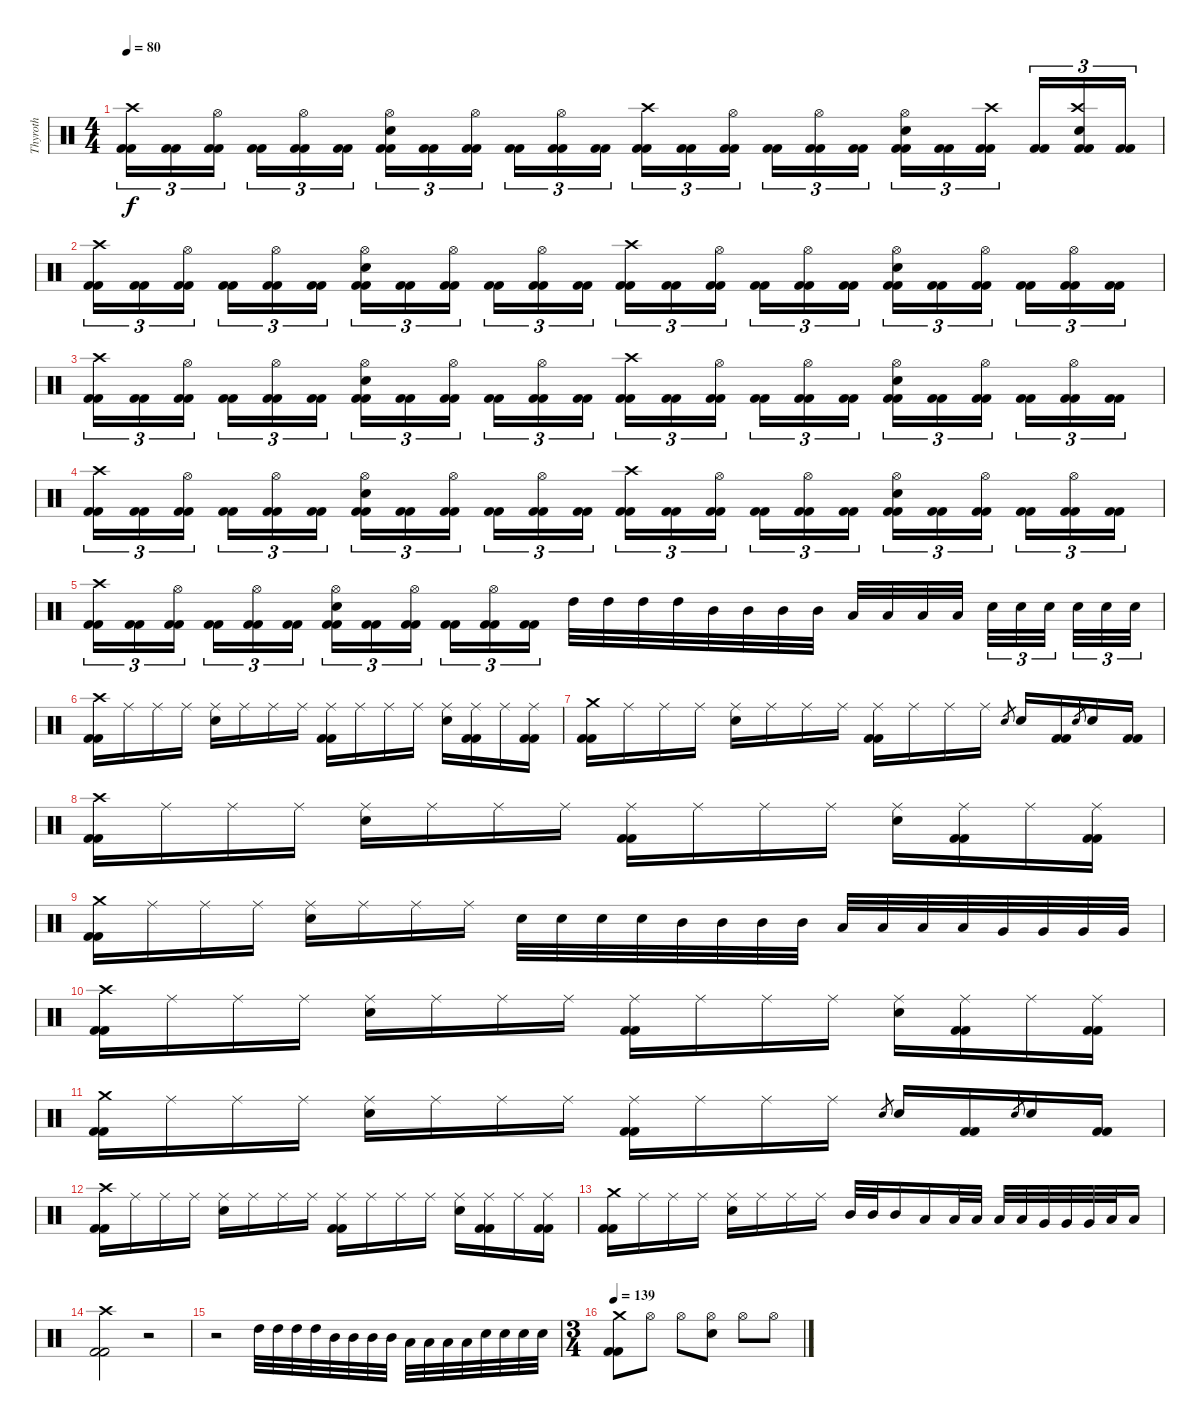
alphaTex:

\track ("Thyroth" "Thyroth") {instrument percussion}
\staff {score}
\articulation defaults
\ts (4 4)
\tempo 80
\clef neutral
\ks c
("Kick (hit) 2" "Kick (hit) 2" "Crash high (hit)").16{tu (3 2) dy f} ("Kick (hit) 2" "Kick (hit) 2").16{tu (3 2)} ("Kick (hit) 2" "Kick (hit) 2" "Hi-Hat (open)").16{tu (3 2)} ("Kick (hit) 2" "Kick (hit) 2").16{tu (3 2)} ("Kick (hit) 2" "Kick (hit) 2" "Hi-Hat (open)").16{tu (3 2)} ("Kick (hit) 2" "Kick (hit) 2").16{tu (3 2)} ("Kick (hit) 2" "Kick (hit) 2" "Snare (hit) 2" "Hi-Hat (open)").16{tu (3 2)} ("Kick (hit) 2" "Kick (hit) 2").16{tu (3 2)} ("Kick (hit) 2" "Kick (hit) 2" "Hi-Hat (open)").16{tu (3 2)} ("Kick (hit) 2" "Kick (hit) 2").16{tu (3 2)} ("Kick (hit) 2" "Kick (hit) 2" "Hi-Hat (open)").16{tu (3 2)} ("Kick (hit) 2" "Kick (hit) 2").16{tu (3 2)} ("Kick (hit) 2" "Kick (hit) 2" "Crash high (hit)").16{tu (3 2)} ("Kick (hit) 2" "Kick (hit) 2").16{tu (3 2)} ("Kick (hit) 2" "Kick (hit) 2" "Hi-Hat (open)").16{tu (3 2)} ("Kick (hit) 2" "Kick (hit) 2").16{tu (3 2)} ("Kick (hit) 2" "Kick (hit) 2" "Hi-Hat (open)").16{tu (3 2)} ("Kick (hit) 2" "Kick (hit) 2").16{tu (3 2)} ("Kick (hit) 2" "Kick (hit) 2" "Snare (hit) 2" "Hi-Hat (open)").16{tu (3 2)} ("Kick (hit) 2" "Kick (hit) 2").16{tu (3 2)} ("Kick (hit) 2" "Kick (hit) 2" "Crash high (hit)").16{tu (3 2)} ("Kick (hit) 2" "Kick (hit) 2").16{tu (3 2)} ("Kick (hit) 2" "Kick (hit) 2" "Snare (hit) 2" "Crash high (hit)").16{tu (3 2)} ("Kick (hit) 2" "Kick (hit) 2").16{tu (3 2)} |
("Kick (hit) 2" "Kick (hit) 2" "Crash high (hit)").16{tu (3 2)} ("Kick (hit) 2" "Kick (hit) 2").16{tu (3 2)} ("Kick (hit) 2" "Kick (hit) 2" "Hi-Hat (open)").16{tu (3 2)} ("Kick (hit) 2" "Kick (hit) 2").16{tu (3 2)} ("Kick (hit) 2" "Kick (hit) 2" "Hi-Hat (open)").16{tu (3 2)} ("Kick (hit) 2" "Kick (hit) 2").16{tu (3 2)} ("Kick (hit) 2" "Kick (hit) 2" "Snare (hit) 2" "Hi-Hat (open)").16{tu (3 2)} ("Kick (hit) 2" "Kick (hit) 2").16{tu (3 2)} ("Kick (hit) 2" "Kick (hit) 2" "Hi-Hat (open)").16{tu (3 2)} ("Kick (hit) 2" "Kick (hit) 2").16{tu (3 2)} ("Kick (hit) 2" "Kick (hit) 2" "Hi-Hat (open)").16{tu (3 2)} ("Kick (hit) 2" "Kick (hit) 2").16{tu (3 2)} ("Kick (hit) 2" "Kick (hit) 2" "Crash high (hit)").16{tu (3 2)} ("Kick (hit) 2" "Kick (hit) 2").16{tu (3 2)} ("Kick (hit) 2" "Kick (hit) 2" "Hi-Hat (open)").16{tu (3 2)} ("Kick (hit) 2" "Kick (hit) 2").16{tu (3 2)} ("Kick (hit) 2" "Kick (hit) 2" "Hi-Hat (open)").16{tu (3 2)} ("Kick (hit) 2" "Kick (hit) 2").16{tu (3 2)} ("Kick (hit) 2" "Kick (hit) 2" "Snare (hit) 2" "Hi-Hat (open)").16{tu (3 2)} ("Kick (hit) 2" "Kick (hit) 2").16{tu (3 2)} ("Kick (hit) 2" "Kick (hit) 2" "Hi-Hat (open)").16{tu (3 2)} ("Kick (hit) 2" "Kick (hit) 2").16{tu (3 2)} ("Kick (hit) 2" "Kick (hit) 2" "Hi-Hat (open)").16{tu (3 2)} ("Kick (hit) 2" "Kick (hit) 2").16{tu (3 2)} |
("Kick (hit) 2" "Kick (hit) 2" "Crash high (hit)").16{tu (3 2)} ("Kick (hit) 2" "Kick (hit) 2").16{tu (3 2)} ("Kick (hit) 2" "Kick (hit) 2" "Hi-Hat (open)").16{tu (3 2)} ("Kick (hit) 2" "Kick (hit) 2").16{tu (3 2)} ("Kick (hit) 2" "Kick (hit) 2" "Hi-Hat (open)").16{tu (3 2)} ("Kick (hit) 2" "Kick (hit) 2").16{tu (3 2)} ("Kick (hit) 2" "Kick (hit) 2" "Snare (hit) 2" "Hi-Hat (open)").16{tu (3 2)} ("Kick (hit) 2" "Kick (hit) 2").16{tu (3 2)} ("Kick (hit) 2" "Kick (hit) 2" "Hi-Hat (open)").16{tu (3 2)} ("Kick (hit) 2" "Kick (hit) 2").16{tu (3 2)} ("Kick (hit) 2" "Kick (hit) 2" "Hi-Hat (open)").16{tu (3 2)} ("Kick (hit) 2" "Kick (hit) 2").16{tu (3 2)} ("Kick (hit) 2" "Kick (hit) 2" "Crash high (hit)").16{tu (3 2)} ("Kick (hit) 2" "Kick (hit) 2").16{tu (3 2)} ("Kick (hit) 2" "Kick (hit) 2" "Hi-Hat (open)").16{tu (3 2)} ("Kick (hit) 2" "Kick (hit) 2").16{tu (3 2)} ("Kick (hit) 2" "Kick (hit) 2" "Hi-Hat (open)").16{tu (3 2)} ("Kick (hit) 2" "Kick (hit) 2").16{tu (3 2)} ("Kick (hit) 2" "Kick (hit) 2" "Snare (hit) 2" "Hi-Hat (open)").16{tu (3 2)} ("Kick (hit) 2" "Kick (hit) 2").16{tu (3 2)} ("Kick (hit) 2" "Kick (hit) 2" "Hi-Hat (open)").16{tu (3 2)} ("Kick (hit) 2" "Kick (hit) 2").16{tu (3 2)} ("Kick (hit) 2" "Kick (hit) 2" "Hi-Hat (open)").16{tu (3 2)} ("Kick (hit) 2" "Kick (hit) 2").16{tu (3 2)} |
("Kick (hit) 2" "Kick (hit) 2" "Crash high (hit)").16{tu (3 2)} ("Kick (hit) 2" "Kick (hit) 2").16{tu (3 2)} ("Kick (hit) 2" "Kick (hit) 2" "Hi-Hat (open)").16{tu (3 2)} ("Kick (hit) 2" "Kick (hit) 2").16{tu (3 2)} ("Kick (hit) 2" "Kick (hit) 2" "Hi-Hat (open)").16{tu (3 2)} ("Kick (hit) 2" "Kick (hit) 2").16{tu (3 2)} ("Kick (hit) 2" "Kick (hit) 2" "Snare (hit) 2" "Hi-Hat (open)").16{tu (3 2)} ("Kick (hit) 2" "Kick (hit) 2").16{tu (3 2)} ("Kick (hit) 2" "Kick (hit) 2" "Hi-Hat (open)").16{tu (3 2)} ("Kick (hit) 2" "Kick (hit) 2").16{tu (3 2)} ("Kick (hit) 2" "Kick (hit) 2" "Hi-Hat (open)").16{tu (3 2)} ("Kick (hit) 2" "Kick (hit) 2").16{tu (3 2)} ("Kick (hit) 2" "Kick (hit) 2" "Crash high (hit)").16{tu (3 2)} ("Kick (hit) 2" "Kick (hit) 2").16{tu (3 2)} ("Kick (hit) 2" "Kick (hit) 2" "Hi-Hat (open)").16{tu (3 2)} ("Kick (hit) 2" "Kick (hit) 2").16{tu (3 2)} ("Kick (hit) 2" "Kick (hit) 2" "Hi-Hat (open)").16{tu (3 2)} ("Kick (hit) 2" "Kick (hit) 2").16{tu (3 2)} ("Kick (hit) 2" "Kick (hit) 2" "Snare (hit) 2" "Hi-Hat (open)").16{tu (3 2)} ("Kick (hit) 2" "Kick (hit) 2").16{tu (3 2)} ("Kick (hit) 2" "Kick (hit) 2" "Hi-Hat (open)").16{tu (3 2)} ("Kick (hit) 2" "Kick (hit) 2").16{tu (3 2)} ("Kick (hit) 2" "Kick (hit) 2" "Hi-Hat (open)").16{tu (3 2)} ("Kick (hit) 2" "Kick (hit) 2").16{tu (3 2)} |
("Kick (hit) 2" "Kick (hit) 2" "Crash high (hit)").16{tu (3 2)} ("Kick (hit) 2" "Kick (hit) 2").16{tu (3 2)} ("Kick (hit) 2" "Kick (hit) 2" "Hi-Hat (open)").16{tu (3 2)} ("Kick (hit) 2" "Kick (hit) 2").16{tu (3 2)} ("Kick (hit) 2" "Kick (hit) 2" "Hi-Hat (open)").16{tu (3 2)} ("Kick (hit) 2" "Kick (hit) 2").16{tu (3 2)} ("Kick (hit) 2" "Kick (hit) 2" "Snare (hit) 2" "Hi-Hat (open)").16{tu (3 2)} ("Kick (hit) 2" "Kick (hit) 2").16{tu (3 2)} ("Kick (hit) 2" "Kick (hit) 2" "Hi-Hat (open)").16{tu (3 2)} ("Kick (hit) 2" "Kick (hit) 2").16{tu (3 2)} ("Kick (hit) 2" "Kick (hit) 2" "Hi-Hat (open)").16{tu (3 2)} ("Kick (hit) 2" "Kick (hit) 2").16{tu (3 2)} "High Tom (hit)".32 "High Tom (hit)".32 "High Tom (hit)".32 "High Tom (hit)".32 "Mid Tom (hit)".32 "Mid Tom (hit)".32 "Mid Tom (hit)".32 "Mid Tom (hit)".32 "Low Tom (hit)".32 "Low Tom (hit)".32 "Low Tom (hit)".32 "Low Tom (hit)".32 "Snare (hit) 2".32{tu (3 2)} "Snare (hit) 2".32{tu (3 2)} "Snare (hit) 2".32{tu (3 2)} "Snare (hit) 2".32{tu (3 2)} "Snare (hit) 2".32{tu (3 2)} "Snare (hit) 2".32{tu (3 2)} |
("Kick (hit) 2" "Kick (hit) 2" "Crash high (hit)").16 "Ride (middle)".16 "Ride (middle)".16 "Ride (middle)".16 ("Snare (hit) 2" "Ride (middle)").16 "Ride (middle)".16 "Ride (middle)".16 "Ride (middle)".16 ("Kick (hit) 2" "Kick (hit) 2" "Ride (middle)").16 "Ride (middle)".16 "Ride (middle)".16 "Ride (middle)".16 ("Snare (hit) 2" "Ride (middle)").16 ("Kick (hit) 2" "Kick (hit) 2" "Ride (middle)").16 "Ride (middle)".16 ("Kick (hit) 2" "Kick (hit) 2" "Ride (middle)").16 |
("Kick (hit) 2" "Kick (hit) 2" "Crash medium (hit)").16 "Ride (middle)".16 "Ride (middle)".16 "Ride (middle)".16 ("Snare (hit) 2" "Ride (middle)").16 "Ride (middle)".16 "Ride (middle)".16 "Ride (middle)".16 ("Kick (hit) 2" "Kick (hit) 2" "Ride (middle)").16 "Ride (middle)".16 "Ride (middle)".16 "Ride (middle)".16 "Snare (hit) 2".8{gr} "Snare (hit) 2".16 ("Kick (hit) 2" "Kick (hit) 2").16 "Snare (hit) 2".8{gr} "Snare (hit) 2".16 ("Kick (hit) 2" "Kick (hit) 2").16 |
("Kick (hit) 2" "Kick (hit) 2" "Crash high (hit)").16 "Ride (middle)".16 "Ride (middle)".16 "Ride (middle)".16 ("Snare (hit) 2" "Ride (middle)").16 "Ride (middle)".16 "Ride (middle)".16 "Ride (middle)".16 ("Kick (hit) 2" "Kick (hit) 2" "Ride (middle)").16 "Ride (middle)".16 "Ride (middle)".16 "Ride (middle)".16 ("Snare (hit) 2" "Ride (middle)").16 ("Kick (hit) 2" "Kick (hit) 2" "Ride (middle)").16 "Ride (middle)".16 ("Kick (hit) 2" "Kick (hit) 2" "Ride (middle)").16 |
("Kick (hit) 2" "Kick (hit) 2" "Crash medium (hit)").16 "Ride (middle)".16 "Ride (middle)".16 "Ride (middle)".16 ("Snare (hit) 2" "Ride (middle)").16 "Ride (middle)".16 "Ride (middle)".16 "Ride (middle)".16 "Snare (hit) 2".32 "Snare (hit) 2".32 "Snare (hit) 2".32 "Snare (hit) 2".32 "Mid Tom (hit)".32 "Mid Tom (hit)".32 "Mid Tom (hit)".32 "Mid Tom (hit)".32 "Low Tom (hit)".32 "Low Tom (hit)".32 "Low Tom (hit)".32 "Low Tom (hit)".32 "Very Low Tom (hit)".32 "Very Low Tom (hit)".32 "Very Low Tom (hit)".32 "Very Low Tom (hit)".32 |
("Kick (hit) 2" "Kick (hit) 2" "Crash high (hit)").16 "Ride (middle)".16 "Ride (middle)".16 "Ride (middle)".16 ("Snare (hit) 2" "Ride (middle)").16 "Ride (middle)".16 "Ride (middle)".16 "Ride (middle)".16 ("Kick (hit) 2" "Kick (hit) 2" "Ride (middle)").16 "Ride (middle)".16 "Ride (middle)".16 "Ride (middle)".16 ("Snare (hit) 2" "Ride (middle)").16 ("Kick (hit) 2" "Kick (hit) 2" "Ride (middle)").16 "Ride (middle)".16 ("Kick (hit) 2" "Kick (hit) 2" "Ride (middle)").16 |
("Kick (hit) 2" "Kick (hit) 2" "Crash medium (hit)").16 "Ride (middle)".16 "Ride (middle)".16 "Ride (middle)".16 ("Snare (hit) 2" "Ride (middle)").16 "Ride (middle)".16 "Ride (middle)".16 "Ride (middle)".16 ("Kick (hit) 2" "Kick (hit) 2" "Ride (middle)").16 "Ride (middle)".16 "Ride (middle)".16 "Ride (middle)".16 "Snare (hit) 2".8{gr} "Snare (hit) 2".16 ("Kick (hit) 2" "Kick (hit) 2").16 "Snare (hit) 2".8{gr} "Snare (hit) 2".16 ("Kick (hit) 2" "Kick (hit) 2").16 |
("Kick (hit) 2" "Kick (hit) 2" "Crash high (hit)").16 "Ride (middle)".16 "Ride (middle)".16 "Ride (middle)".16 ("Snare (hit) 2" "Ride (middle)").16 "Ride (middle)".16 "Ride (middle)".16 "Ride (middle)".16 ("Kick (hit) 2" "Kick (hit) 2" "Ride (middle)").16 "Ride (middle)".16 "Ride (middle)".16 "Ride (middle)".16 ("Snare (hit) 2" "Ride (middle)").16 ("Kick (hit) 2" "Kick (hit) 2" "Ride (middle)").16 "Ride (middle)".16 ("Kick (hit) 2" "Kick (hit) 2" "Ride (middle)").16 |
("Kick (hit) 2" "Kick (hit) 2" "Crash medium (hit)").16 "Ride (middle)".16 "Ride (middle)".16 "Ride (middle)".16 ("Snare (hit) 2" "Ride (middle)").16 "Ride (middle)".16 "Ride (middle)".16 "Ride (middle)".16 "Mid Tom (hit)".32 "Mid Tom (hit)".32 "Mid Tom (hit)".16 "Low Tom (hit)".16 "Low Tom (hit)".32 "Low Tom (hit)".32 "Low Tom (hit)".32 "Low Tom (hit)".32 "Very Low Tom (hit)".32 "Very Low Tom (hit)".32 "Very Low Tom (hit)".32 "Low Floor Tom (hit)".32 "Low Floor Tom (hit)".16 |
("Kick (hit) 2" "Kick (hit) 2" "Crash high (hit)").2 r.2 |
r.2 "High Tom (hit)".32 "High Tom (hit)".32 "High Tom (hit)".32 "High Tom (hit)".32 "Mid Tom (hit)".32 "Mid Tom (hit)".32 "Mid Tom (hit)".32 "Mid Tom (hit)".32 "Low Tom (hit)".32 "Low Tom (hit)".32 "Low Tom (hit)".32 "Low Tom (hit)".32 "Snare (hit) 2".32 "Snare (hit) 2".32 "Snare (hit) 2".32 "Snare (hit) 2".32 |
\ts (3 4)
\tempo 139
("Kick (hit) 2" "Kick (hit) 2" "Crash medium (hit)").8 "Hi-Hat (open)".8 "Hi-Hat (open)".8 ("Snare (hit) 2" "Hi-Hat (open)").8 "Hi-Hat (open)".8 "Hi-Hat (open)".8
